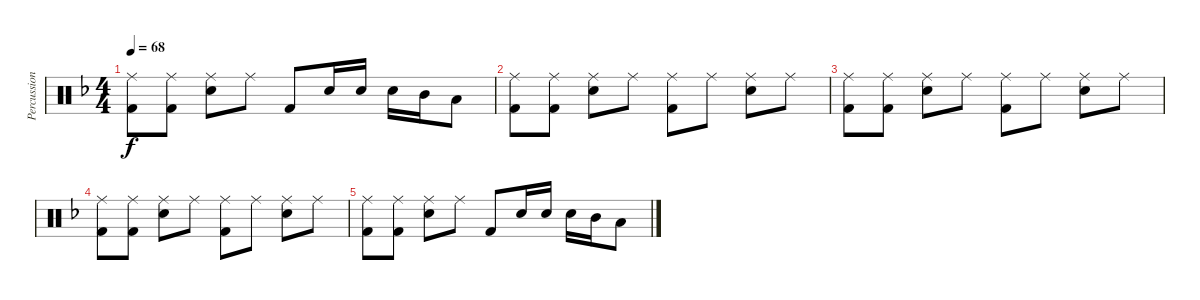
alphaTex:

\track ("Percussion" "Percussion") {instrument percussion}
\staff {score}
\articulation defaults
\ts (4 4)
\tempo 68
\clef neutral
\ks f
("Ride (middle)" "Kick (hit) 2").8{dy f} ("Ride (middle)" "Kick (hit) 2").8 ("Ride (middle)" "Snare (hit) 2").8 "Ride (middle)".8 "Kick (hit) 2".8 "Snare (hit) 2".16 "Snare (hit) 2".16 "Snare (hit) 2".16 "Mid Tom (hit)".16 "Low Floor Tom (hit)".8 |
("Ride (middle)" "Kick (hit) 2").8 ("Ride (middle)" "Kick (hit) 2").8 ("Ride (middle)" "Snare (hit) 2").8 "Ride (middle)".8 ("Ride (middle)" "Kick (hit) 2").8 "Ride (middle)".8 ("Ride (middle)" "Snare (hit) 2").8 "Ride (middle)".8 |
("Ride (middle)" "Kick (hit) 2").8 ("Ride (middle)" "Kick (hit) 2").8 ("Ride (middle)" "Snare (hit) 2").8 "Ride (middle)".8 ("Ride (middle)" "Kick (hit) 2").8 "Ride (middle)".8 ("Ride (middle)" "Snare (hit) 2").8 "Ride (middle)".8 |
("Ride (middle)" "Kick (hit) 2").8 ("Ride (middle)" "Kick (hit) 2").8 ("Ride (middle)" "Snare (hit) 2").8 "Ride (middle)".8 ("Ride (middle)" "Kick (hit) 2").8 "Ride (middle)".8 ("Ride (middle)" "Snare (hit) 2").8 "Ride (middle)".8 |
("Ride (middle)" "Kick (hit) 2").8 ("Ride (middle)" "Kick (hit) 2").8 ("Ride (middle)" "Snare (hit) 2").8 "Ride (middle)".8 "Kick (hit) 2".8 "Snare (hit) 2".16 "Snare (hit) 2".16 "Snare (hit) 2".16 "Mid Tom (hit)".16 "Low Floor Tom (hit)".8
